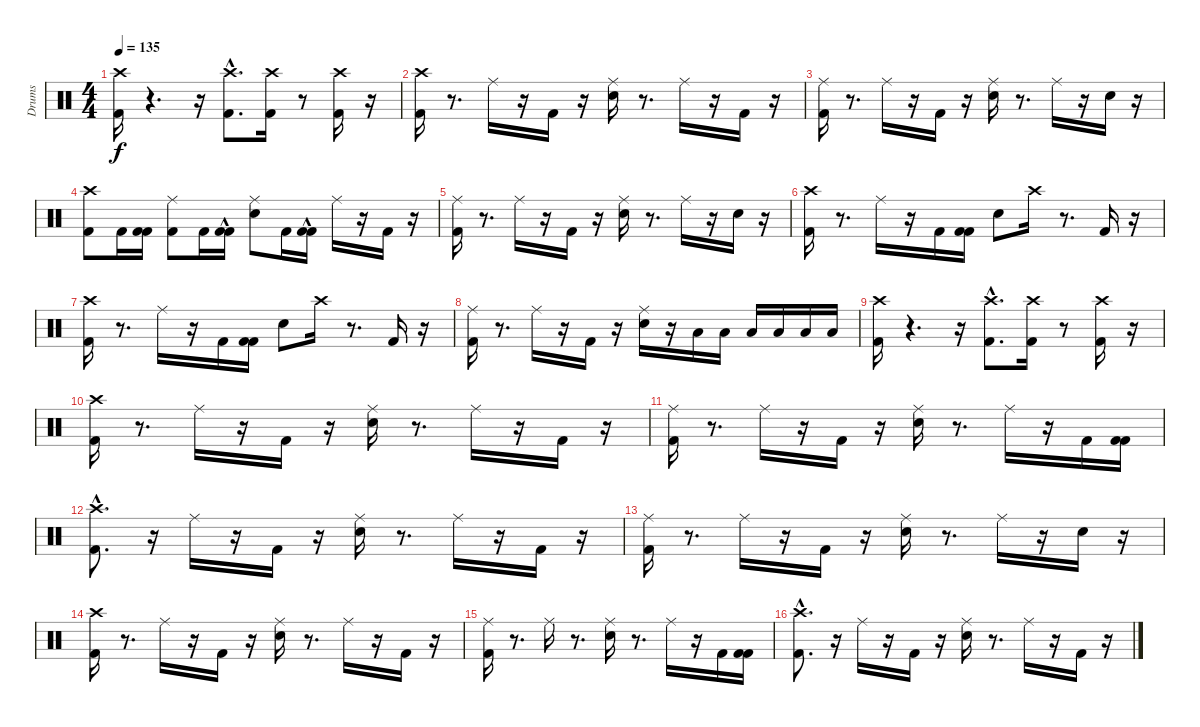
\track ("Drums" "Drums") {instrument percussion}
\staff {score}
\articulation defaults
\ts (4 4)
\tempo 135
\clef neutral
\ks c
("Kick (hit) 2" "Crash high (hit)").16{dy f} r.4{d} r.16 ("Kick (hit) 2"{hac} "Crash high (hit)"{hac}).8{d} ("Kick (hit) 2" "Crash high (hit)").16 r.8 ("Kick (hit) 2" "Crash high (hit)").16 r.16 |
("Kick (hit) 2" "Crash high (hit)").16 r.8{d} "Ride (middle)".16 r.16 "Kick (hit) 2".16 r.16 ("Snare (hit) 2" "Ride (middle)").16 r.8{d} "Ride (middle)".16 r.16 "Kick (hit) 2".16 r.16 |
("Kick (hit) 2" "Ride (middle)").16 r.8{d} "Ride (middle)".16 r.16 "Kick (hit) 2".16 r.16 ("Snare (hit) 2" "Ride (middle)").16 r.8{d} "Ride (middle)".16 r.16 "Snare (hit) 2".16 r.16 |
("Kick (hit) 2" "Crash high (hit)").8 "Kick (hit) 2".16 ("Kick (hit) 2" "Kick (hit) 2").16 ("Kick (hit) 2" "Ride (middle)").8 "Kick (hit) 2".16 ("Kick (hit) 2"{hac} "Kick (hit) 2"{hac}).16 ("Snare (hit) 2" "Ride (middle)").8 "Kick (hit) 2".16 ("Kick (hit) 2"{hac} "Kick (hit) 2"{hac}).16 "Ride (middle)".16 r.16 "Kick (hit) 2".16 r.16 |
("Kick (hit) 2" "Ride (middle)").16 r.8{d} "Ride (middle)".16 r.16 "Kick (hit) 2".16 r.16 ("Snare (hit) 2" "Ride (middle)").16 r.8{d} "Ride (middle)".16 r.16 "Snare (hit) 2".16 r.16 |
("Kick (hit) 2" "Crash high (hit)").16 r.8{d} "Ride (middle)".16 r.16 "Kick (hit) 2".16 ("Kick (hit) 2" "Kick (hit) 2").16 "Snare (hit) 2".8 "Crash high (hit)".16 r.8{d} "Kick (hit) 2".16 r.16 |
("Kick (hit) 2" "Crash high (hit)").16 r.8{d} "Ride (middle)".16 r.16 "Kick (hit) 2".16 ("Kick (hit) 2" "Kick (hit) 2").16 "Snare (hit) 2".8 "Crash high (hit)".16 r.8{d} "Kick (hit) 2".16 r.16 |
("Kick (hit) 2" "Ride (middle)").16 r.8{d} "Ride (middle)".16 r.16 "Kick (hit) 2".16 r.16 ("Snare (hit) 2" "Ride (middle)").16 r.16 "Low Tom (hit)".16 "Low Tom (hit)".16 "Low Tom (hit)".16 "Low Floor Tom (hit)".16 "Low Floor Tom (hit)".16 "Low Floor Tom (hit)".16 |
("Kick (hit) 2" "Crash high (hit)").16 r.4{d} r.16 ("Kick (hit) 2"{hac} "Crash high (hit)"{hac}).8{d} ("Kick (hit) 2" "Crash high (hit)").16 r.8 ("Kick (hit) 2" "Crash high (hit)").16 r.16 |
("Kick (hit) 2" "Crash high (hit)").16 r.8{d} "Ride (middle)".16 r.16 "Kick (hit) 2".16 r.16 ("Snare (hit) 2" "Ride (middle)").16 r.8{d} "Ride (middle)".16 r.16 "Kick (hit) 2".16 r.16 |
("Kick (hit) 2" "Ride (middle)").16 r.8{d} "Ride (middle)".16 r.16 "Kick (hit) 2".16 r.16 ("Snare (hit) 2" "Ride (middle)").16 r.8{d} "Ride (middle)".16 r.16 "Kick (hit) 2".16 ("Kick (hit) 2" "Kick (hit) 2").16 |
("Kick (hit) 2"{hac} "Crash high (hit)").8{d} r.16 "Ride (middle)".16 r.16 "Kick (hit) 2".16 r.16 ("Snare (hit) 2" "Ride (middle)").16 r.8{d} "Ride (middle)".16 r.16 "Kick (hit) 2".16 r.16 |
("Kick (hit) 2" "Ride (middle)").16 r.8{d} "Ride (middle)".16 r.16 "Kick (hit) 2".16 r.16 ("Snare (hit) 2" "Ride (middle)").16 r.8{d} "Ride (middle)".16 r.16 "Snare (hit) 2".16 r.16 |
("Kick (hit) 2" "Crash high (hit)").16 r.8{d} "Ride (middle)".16 r.16 "Kick (hit) 2".16 r.16 ("Snare (hit) 2" "Ride (middle)").16 r.8{d} "Ride (middle)".16 r.16 "Kick (hit) 2".16 r.16 |
("Kick (hit) 2" "Ride (middle)").16 r.8{d} "Ride (middle)".16 r.8{d} ("Snare (hit) 2" "Ride (middle)").16 r.8{d} "Ride (middle)".16 r.16 "Kick (hit) 2".16 ("Kick (hit) 2" "Kick (hit) 2").16 |
("Kick (hit) 2"{hac} "Crash high (hit)").8{d} r.16 "Ride (middle)".16 r.16 "Kick (hit) 2".16 r.16 ("Snare (hit) 2" "Ride (middle)").16 r.8{d} "Ride (middle)".16 r.16 "Kick (hit) 2".16 r.16
